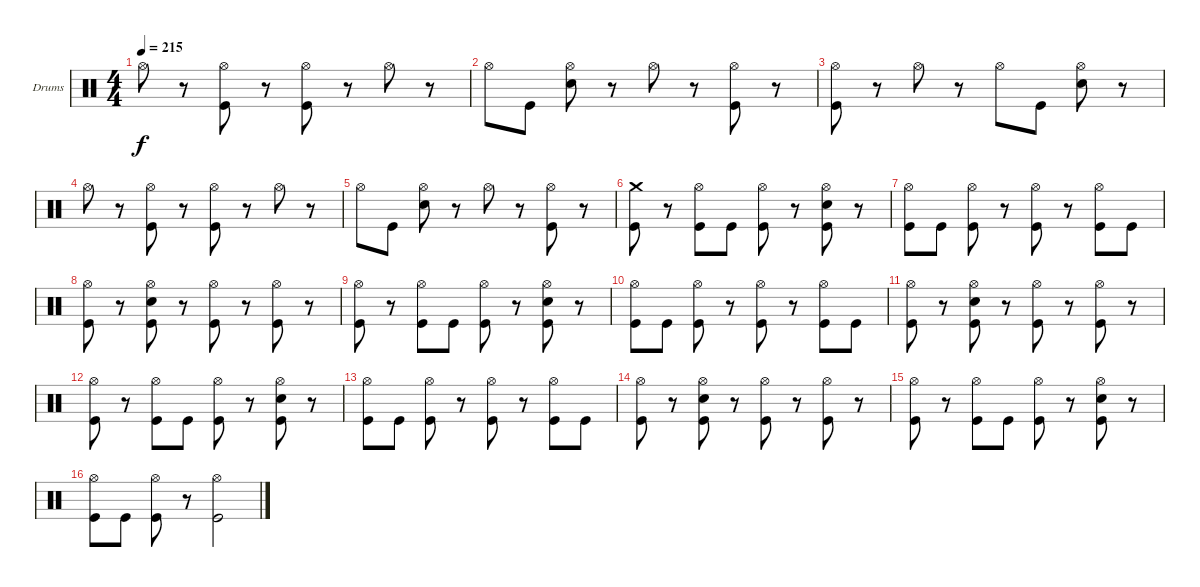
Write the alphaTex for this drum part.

\bracketExtendMode groupsimilarinstruments
\firstSystemTrackNameOrientation horizontal
\otherSystemsTrackNameOrientation horizontal
\track ("Drumkit (Christoph)" "Drums") {instrument percussion}
\staff {score}
\articulation defaults
\ts (4 4)
\tempo 215
\clef neutral
\ks c "Hi-Hat (open)".8{dy f}
r.8 ("Hi-Hat (open)" "Kick (hit)").8 r.8 ("Hi-Hat (open)" "Kick (hit)").8 r.8 "Hi-Hat (open)".8 r.8 |
"Hi-Hat (open)".8 "Kick (hit)".8 ("Hi-Hat (open)" "Snare (hit) 2").8 r.8 "Hi-Hat (open)".8 r.8 ("Hi-Hat (open)" "Kick (hit)").8 r.8 |
("Hi-Hat (open)" "Kick (hit)").8 r.8 "Hi-Hat (open)".8 r.8 "Hi-Hat (open)".8 "Kick (hit)".8 ("Hi-Hat (open)" "Snare (hit) 2").8 r.8 |
"Hi-Hat (open)".8 r.8 ("Hi-Hat (open)" "Kick (hit)").8 r.8 ("Hi-Hat (open)" "Kick (hit)").8 r.8 "Hi-Hat (open)".8 r.8 |
"Hi-Hat (open)".8 "Kick (hit)".8 ("Hi-Hat (open)" "Snare (hit) 2").8 r.8 "Hi-Hat (open)".8 r.8 ("Hi-Hat (open)" "Kick (hit)").8 r.8 |
("Crash medium (hit)" "Kick (hit)").8 r.8 ("Hi-Hat (open)" "Kick (hit)").8 "Kick (hit)".8 ("Hi-Hat (open)" "Kick (hit)").8 r.8 ("Hi-Hat (open)" "Snare (hit) 2" "Kick (hit)").8 r.8 |
("Hi-Hat (open)" "Kick (hit)").8 "Kick (hit)".8 ("Hi-Hat (open)" "Kick (hit)").8 r.8 ("Hi-Hat (open)" "Kick (hit)").8 r.8 ("Hi-Hat (open)" "Kick (hit)").8 "Kick (hit)".8 |
("Hi-Hat (open)" "Kick (hit)").8 r.8 ("Hi-Hat (open)" "Snare (hit) 2" "Kick (hit)").8 r.8 ("Hi-Hat (open)" "Kick (hit)").8 r.8 ("Hi-Hat (open)" "Kick (hit)").8 r.8 |
("Hi-Hat (open)" "Kick (hit)").8 r.8 ("Hi-Hat (open)" "Kick (hit)").8 "Kick (hit)".8 ("Hi-Hat (open)" "Kick (hit)").8 r.8 ("Hi-Hat (open)" "Snare (hit) 2" "Kick (hit)").8 r.8 |
("Hi-Hat (open)" "Kick (hit)").8 "Kick (hit)".8 ("Hi-Hat (open)" "Kick (hit)").8 r.8 ("Hi-Hat (open)" "Kick (hit)").8 r.8 ("Hi-Hat (open)" "Kick (hit)").8 "Kick (hit)".8 |
("Hi-Hat (open)" "Kick (hit)").8 r.8 ("Hi-Hat (open)" "Snare (hit) 2" "Kick (hit)").8 r.8 ("Hi-Hat (open)" "Kick (hit)").8 r.8 ("Hi-Hat (open)" "Kick (hit)").8 r.8 |
("Hi-Hat (open)" "Kick (hit)").8 r.8 ("Hi-Hat (open)" "Kick (hit)").8 "Kick (hit)".8 ("Hi-Hat (open)" "Kick (hit)").8 r.8 ("Hi-Hat (open)" "Snare (hit) 2" "Kick (hit)").8 r.8 |
("Hi-Hat (open)" "Kick (hit)").8 "Kick (hit)".8 ("Hi-Hat (open)" "Kick (hit)").8 r.8 ("Hi-Hat (open)" "Kick (hit)").8 r.8 ("Hi-Hat (open)" "Kick (hit)").8 "Kick (hit)".8 |
("Hi-Hat (open)" "Kick (hit)").8 r.8 ("Hi-Hat (open)" "Snare (hit) 2" "Kick (hit)").8 r.8 ("Hi-Hat (open)" "Kick (hit)").8 r.8 ("Hi-Hat (open)" "Kick (hit)").8 r.8 |
("Hi-Hat (open)" "Kick (hit)").8 r.8 ("Hi-Hat (open)" "Kick (hit)").8 "Kick (hit)".8 ("Hi-Hat (open)" "Kick (hit)").8 r.8 ("Hi-Hat (open)" "Snare (hit) 2" "Kick (hit)").8 r.8 |
("Hi-Hat (open)" "Kick (hit)").8 "Kick (hit)".8 ("Hi-Hat (open)" "Kick (hit)").8 r.8 ("Hi-Hat (open)" "Kick (hit)").2
